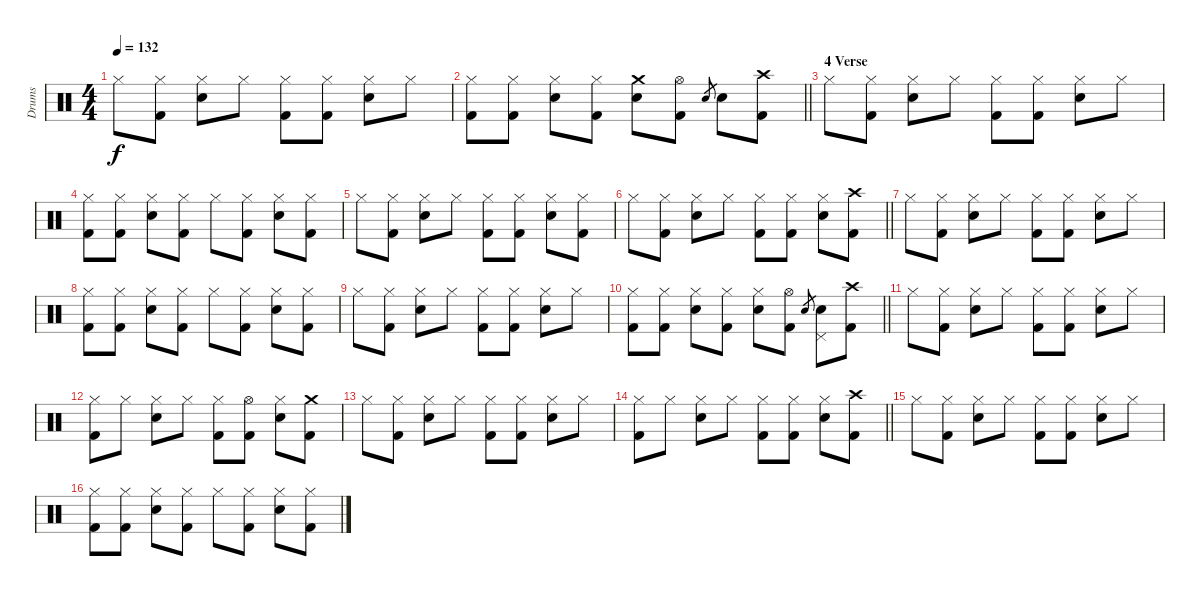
\track ("Drums" "Drums") {instrument percussion}
\staff {score}
\articulation defaults
\ts (4 4)
\tempo 132
\clef neutral
\ks c "Hi-Hat (closed)".8{dy f}
("Hi-Hat (closed)" "Kick (hit) 2").8 ("Hi-Hat (closed)" "Electric Snare (hit)").8 "Hi-Hat (closed)".8 ("Hi-Hat (closed)" "Kick (hit) 2").8 ("Hi-Hat (closed)" "Kick (hit) 2").8 ("Hi-Hat (closed)" "Electric Snare (hit)").8 "Hi-Hat (closed)".8 |
\barLineRight lightlight
("Hi-Hat (closed)" "Kick (hit) 2").8 ("Hi-Hat (closed)" "Kick (hit) 2").8 ("Hi-Hat (closed)" "Electric Snare (hit)").8 ("Hi-Hat (closed)" "Kick (hit) 2").8 ("Crash medium (hit)" "Electric Snare (hit)").8 ("Hi-Hat (open)" "Kick (hit) 2").8 "Electric Snare (hit)".8{gr} "Electric Snare (hit)".8 ("Crash high (hit)" "Kick (hit) 2").8 |
\section ("" "4 Verse")
"Hi-Hat (closed)".8 ("Hi-Hat (closed)" "Kick (hit) 2").8 ("Hi-Hat (closed)" "Electric Snare (hit)").8 "Hi-Hat (closed)".8 ("Hi-Hat (closed)" "Kick (hit) 2").8 ("Hi-Hat (closed)" "Kick (hit) 2").8 ("Hi-Hat (closed)" "Electric Snare (hit)").8 "Hi-Hat (closed)".8 |
("Hi-Hat (closed)" "Kick (hit) 2").8 ("Hi-Hat (closed)" "Kick (hit) 2").8 ("Hi-Hat (closed)" "Electric Snare (hit)").8 ("Hi-Hat (closed)" "Kick (hit) 2").8 "Hi-Hat (closed)".8 ("Hi-Hat (closed)" "Kick (hit) 2").8 ("Hi-Hat (closed)" "Electric Snare (hit)").8 ("Hi-Hat (closed)" "Kick (hit) 2").8 |
"Hi-Hat (closed)".8 ("Hi-Hat (closed)" "Kick (hit) 2").8 ("Hi-Hat (closed)" "Electric Snare (hit)").8 "Hi-Hat (closed)".8 ("Hi-Hat (closed)" "Kick (hit) 2").8 ("Hi-Hat (closed)" "Kick (hit) 2").8 ("Hi-Hat (closed)" "Electric Snare (hit)").8 ("Hi-Hat (closed)" "Kick (hit) 2").8 |
\barLineRight lightlight "Hi-Hat (closed)".8
("Hi-Hat (closed)" "Kick (hit) 2").8 ("Hi-Hat (closed)" "Electric Snare (hit)").8 "Hi-Hat (closed)".8 ("Hi-Hat (closed)" "Kick (hit) 2").8 ("Hi-Hat (closed)" "Kick (hit) 2").8 ("Hi-Hat (closed)" "Electric Snare (hit)").8 ("Crash high (hit)" "Kick (hit) 2").8 |
"Hi-Hat (closed)".8 ("Hi-Hat (closed)" "Kick (hit) 2").8 ("Hi-Hat (closed)" "Electric Snare (hit)").8 "Hi-Hat (closed)".8 ("Hi-Hat (closed)" "Kick (hit) 2").8 ("Hi-Hat (closed)" "Kick (hit) 2").8 ("Hi-Hat (closed)" "Electric Snare (hit)").8 "Hi-Hat (closed)".8 |
("Hi-Hat (closed)" "Kick (hit) 2").8 ("Hi-Hat (closed)" "Kick (hit) 2").8 ("Hi-Hat (closed)" "Electric Snare (hit)").8 ("Hi-Hat (closed)" "Kick (hit) 2").8 "Hi-Hat (closed)".8 ("Hi-Hat (closed)" "Kick (hit) 2").8 ("Hi-Hat (closed)" "Electric Snare (hit)").8 ("Hi-Hat (closed)" "Kick (hit) 2").8 |
"Hi-Hat (closed)".8 ("Hi-Hat (closed)" "Kick (hit) 2").8 ("Hi-Hat (closed)" "Electric Snare (hit)").8 "Hi-Hat (closed)".8 ("Hi-Hat (closed)" "Kick (hit) 2").8 ("Hi-Hat (closed)" "Kick (hit) 2").8 ("Hi-Hat (closed)" "Electric Snare (hit)").8 "Hi-Hat (closed)".8 |
\barLineRight lightlight
("Hi-Hat (closed)" "Kick (hit) 2").8 ("Hi-Hat (closed)" "Kick (hit) 2").8 ("Hi-Hat (closed)" "Electric Snare (hit)").8 ("Hi-Hat (closed)" "Kick (hit) 2").8 ("Hi-Hat (closed)" "Electric Snare (hit)").8 ("Hi-Hat (open)" "Kick (hit) 2").8 "Electric Snare (hit)".8{gr} ("Electric Snare (hit)" "Pedal Hi-Hat (hit)").8 ("Crash high (hit)" "Kick (hit) 2").8 |
"Hi-Hat (closed)".8 ("Hi-Hat (closed)" "Kick (hit) 2").8 ("Hi-Hat (closed)" "Electric Snare (hit)").8 "Hi-Hat (closed)".8 ("Hi-Hat (closed)" "Kick (hit) 2").8 ("Hi-Hat (closed)" "Kick (hit) 2").8 ("Hi-Hat (closed)" "Electric Snare (hit)").8 "Hi-Hat (closed)".8 |
("Hi-Hat (closed)" "Kick (hit) 2").8 "Hi-Hat (closed)".8 ("Hi-Hat (closed)" "Electric Snare (hit)").8 "Hi-Hat (closed)".8 ("Hi-Hat (closed)" "Kick (hit) 2").8 ("Hi-Hat (open)" "Kick (hit) 2").8 ("Hi-Hat (closed)" "Electric Snare (hit)").8 ("Crash medium (hit)" "Kick (hit) 2").8 |
"Hi-Hat (closed)".8 ("Hi-Hat (closed)" "Kick (hit) 2").8 ("Hi-Hat (closed)" "Electric Snare (hit)").8 "Hi-Hat (closed)".8 ("Hi-Hat (closed)" "Kick (hit) 2").8 ("Hi-Hat (closed)" "Kick (hit) 2").8 ("Hi-Hat (closed)" "Electric Snare (hit)").8 "Hi-Hat (closed)".8 |
\barLineRight lightlight
("Hi-Hat (closed)" "Kick (hit) 2").8 "Hi-Hat (closed)".8 ("Hi-Hat (closed)" "Electric Snare (hit)").8 "Hi-Hat (closed)".8 ("Hi-Hat (closed)" "Kick (hit) 2").8 ("Hi-Hat (closed)" "Kick (hit) 2").8 ("Hi-Hat (closed)" "Electric Snare (hit)").8 ("Crash high (hit)" "Kick (hit) 2").8 |
\section ("" "")
"Hi-Hat (closed)".8 ("Hi-Hat (closed)" "Kick (hit) 2").8 ("Hi-Hat (closed)" "Electric Snare (hit)").8 "Hi-Hat (closed)".8 ("Hi-Hat (closed)" "Kick (hit) 2").8 ("Hi-Hat (closed)" "Kick (hit) 2").8 ("Hi-Hat (closed)" "Electric Snare (hit)").8 "Hi-Hat (closed)".8 |
("Hi-Hat (closed)" "Kick (hit) 2").8 ("Hi-Hat (closed)" "Kick (hit) 2").8 ("Hi-Hat (closed)" "Electric Snare (hit)").8 ("Hi-Hat (closed)" "Kick (hit) 2").8 "Hi-Hat (closed)".8 ("Hi-Hat (closed)" "Kick (hit) 2").8 ("Hi-Hat (closed)" "Electric Snare (hit)").8 ("Hi-Hat (closed)" "Kick (hit) 2").8
